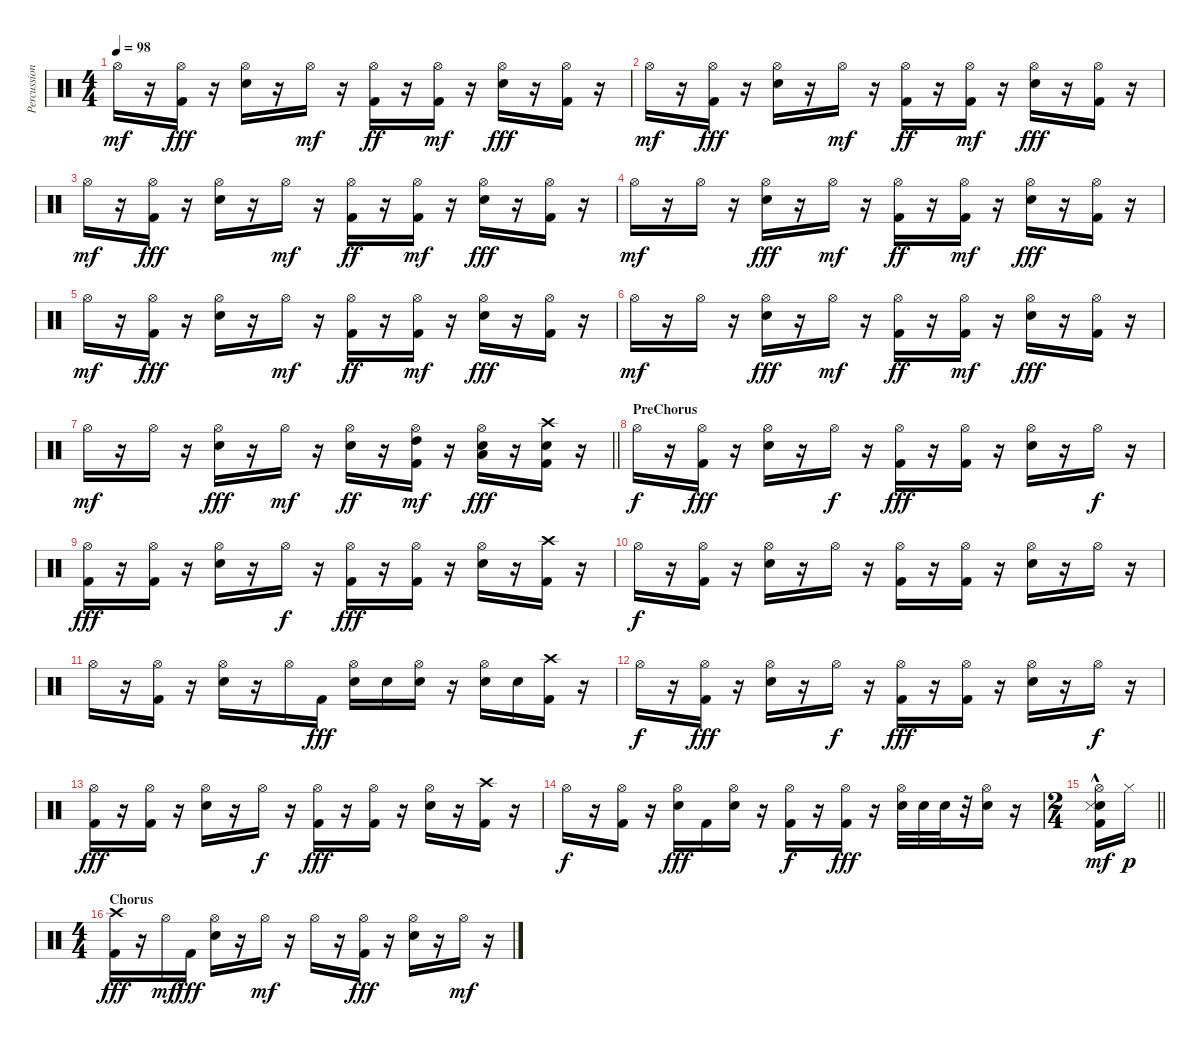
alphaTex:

\track ("Percussion" "Percussion") {instrument percussion}
\staff {score}
\articulation defaults
\ts (4 4)
\tempo 98
\clef neutral
\ks c "Hi-Hat (open)".16{dy mf}
r.16 ("Hi-Hat (open)" "Kick (hit) 2").16{dy fff} r.16 ("Hi-Hat (open)" "Electric Snare (hit)").16 r.16 "Hi-Hat (open)".16{dy mf} r.16 ("Hi-Hat (open)" "Kick (hit) 2").16{dy ff} r.16 ("Hi-Hat (open)" "Kick (hit) 2").16{dy mf} r.16 ("Hi-Hat (open)" "Electric Snare (hit)").16{dy fff} r.16 ("Hi-Hat (open)" "Kick (hit) 2").16 r.16 |
"Hi-Hat (open)".16{dy mf} r.16 ("Hi-Hat (open)" "Kick (hit) 2").16{dy fff} r.16 ("Hi-Hat (open)" "Electric Snare (hit)").16 r.16 "Hi-Hat (open)".16{dy mf} r.16 ("Hi-Hat (open)" "Kick (hit) 2").16{dy ff} r.16 ("Hi-Hat (open)" "Kick (hit) 2").16{dy mf} r.16 ("Hi-Hat (open)" "Electric Snare (hit)").16{dy fff} r.16 ("Hi-Hat (open)" "Kick (hit) 2").16 r.16 |
"Hi-Hat (open)".16{dy mf} r.16 ("Hi-Hat (open)" "Kick (hit) 2").16{dy fff} r.16 ("Hi-Hat (open)" "Electric Snare (hit)").16 r.16 "Hi-Hat (open)".16{dy mf} r.16 ("Hi-Hat (open)" "Kick (hit) 2").16{dy ff} r.16 ("Hi-Hat (open)" "Kick (hit) 2").16{dy mf} r.16 ("Hi-Hat (open)" "Electric Snare (hit)").16{dy fff} r.16 ("Hi-Hat (open)" "Kick (hit) 2").16 r.16 |
"Hi-Hat (open)".16{dy mf} r.16 "Hi-Hat (open)".16 r.16 ("Hi-Hat (open)" "Electric Snare (hit)").16{dy fff} r.16 "Hi-Hat (open)".16{dy mf} r.16 ("Hi-Hat (open)" "Kick (hit) 2").16{dy ff} r.16 ("Hi-Hat (open)" "Kick (hit) 2").16{dy mf} r.16 ("Hi-Hat (open)" "Electric Snare (hit)").16{dy fff} r.16 ("Hi-Hat (open)" "Kick (hit) 2").16 r.16 |
"Hi-Hat (open)".16{dy mf} r.16 ("Hi-Hat (open)" "Kick (hit) 2").16{dy fff} r.16 ("Hi-Hat (open)" "Electric Snare (hit)").16 r.16 "Hi-Hat (open)".16{dy mf} r.16 ("Hi-Hat (open)" "Kick (hit) 2").16{dy ff} r.16 ("Hi-Hat (open)" "Kick (hit) 2").16{dy mf} r.16 ("Hi-Hat (open)" "Electric Snare (hit)").16{dy fff} r.16 ("Hi-Hat (open)" "Kick (hit) 2").16 r.16 |
"Hi-Hat (open)".16{dy mf} r.16 "Hi-Hat (open)".16 r.16 ("Hi-Hat (open)" "Electric Snare (hit)").16{dy fff} r.16 "Hi-Hat (open)".16{dy mf} r.16 ("Hi-Hat (open)" "Kick (hit) 2").16{dy ff} r.16 ("Hi-Hat (open)" "Kick (hit) 2").16{dy mf} r.16 ("Hi-Hat (open)" "Electric Snare (hit)").16{dy fff} r.16 ("Hi-Hat (open)" "Kick (hit) 2").16 r.16 |
\barLineRight lightlight "Hi-Hat (open)".16{dy mf}
r.16 "Hi-Hat (open)".16 r.16 ("Hi-Hat (open)" "Electric Snare (hit)").16{dy fff} r.16 "Hi-Hat (open)".16{dy mf} r.16 ("Hi-Hat (open)" "Electric Snare (hit)").16{dy ff} r.16 ("Hi-Hat (open)" "Kick (hit) 2" "High Tom (hit)").16{dy mf} r.16 ("Hi-Hat (open)" "Electric Snare (hit)" "Low Tom (hit)").16{dy fff} r.16 ("Crash high (hit)" "Kick (hit) 2" "Electric Snare (hit)").16 r.16 |
\section ("" "PreChorus")
"Hi-Hat (open)".16{dy f} r.16 ("Hi-Hat (open)" "Kick (hit) 2").16{dy fff} r.16 ("Hi-Hat (open)" "Electric Snare (hit)").16 r.16 "Hi-Hat (open)".16{dy f} r.16 ("Hi-Hat (open)" "Kick (hit) 2").16{dy fff} r.16 ("Hi-Hat (open)" "Kick (hit) 2").16 r.16 ("Hi-Hat (open)" "Electric Snare (hit)").16 r.16 "Hi-Hat (open)".16{dy f} r.16 |
("Hi-Hat (open)" "Kick (hit) 2").16{dy fff} r.16 ("Hi-Hat (open)" "Kick (hit) 2").16 r.16 ("Hi-Hat (open)" "Electric Snare (hit)").16 r.16 "Hi-Hat (open)".16{dy f} r.16 ("Hi-Hat (open)" "Kick (hit) 2").16{dy fff} r.16 ("Hi-Hat (open)" "Kick (hit) 2").16 r.16 ("Hi-Hat (open)" "Electric Snare (hit)").16 r.16 ("Crash high (hit)" "Kick (hit) 2").16 r.16 |
"Hi-Hat (open)".16{dy f} r.16 ("Hi-Hat (open)" "Kick (hit) 2").16 r.16 ("Hi-Hat (open)" "Electric Snare (hit)").16 r.16 "Hi-Hat (open)".16 r.16 ("Hi-Hat (open)" "Kick (hit) 2").16 r.16 ("Hi-Hat (open)" "Kick (hit) 2").16 r.16 ("Hi-Hat (open)" "Electric Snare (hit)").16 r.16 "Hi-Hat (open)".16 r.16 |
"Hi-Hat (open)".16 r.16 ("Hi-Hat (open)" "Kick (hit) 2").16 r.16 ("Hi-Hat (open)" "Electric Snare (hit)").16 r.16 "Hi-Hat (open)".16 "Kick (hit) 2".16{dy fff} ("Hi-Hat (open)" "Electric Snare (hit)").16 "Electric Snare (hit)".16 ("Hi-Hat (open)" "Electric Snare (hit)").16 r.16 ("Hi-Hat (open)" "Electric Snare (hit)").16 "Electric Snare (hit)".16 ("Crash high (hit)" "Kick (hit) 2").16 r.16 |
"Hi-Hat (open)".16{dy f} r.16 ("Hi-Hat (open)" "Kick (hit) 2").16{dy fff} r.16 ("Hi-Hat (open)" "Electric Snare (hit)").16 r.16 "Hi-Hat (open)".16{dy f} r.16 ("Hi-Hat (open)" "Kick (hit) 2").16{dy fff} r.16 ("Hi-Hat (open)" "Kick (hit) 2").16 r.16 ("Hi-Hat (open)" "Electric Snare (hit)").16 r.16 "Hi-Hat (open)".16{dy f} r.16 |
("Hi-Hat (open)" "Kick (hit) 2").16{dy fff} r.16 ("Hi-Hat (open)" "Kick (hit) 2").16 r.16 ("Hi-Hat (open)" "Electric Snare (hit)").16 r.16 "Hi-Hat (open)".16{dy f} r.16 ("Hi-Hat (open)" "Kick (hit) 2").16{dy fff} r.16 ("Hi-Hat (open)" "Kick (hit) 2").16 r.16 ("Hi-Hat (open)" "Electric Snare (hit)").16 r.16 ("Crash high (hit)" "Kick (hit) 2").16 r.16 |
"Hi-Hat (open)".16{dy f} r.16 ("Hi-Hat (open)" "Kick (hit) 2").16 r.16 ("Hi-Hat (open)" "Electric Snare (hit)").16{dy fff} "Kick (hit) 2".16 ("Hi-Hat (open)" "Electric Snare (hit)").16 r.16 ("Hi-Hat (open)" "Kick (hit) 2").16{dy f} r.16 ("Hi-Hat (open)" "Kick (hit) 2").16{dy fff} r.16 ("Hi-Hat (open)" "Electric Snare (hit)").32 "Electric Snare (hit)".32 "Electric Snare (hit)".32 r.32 ("Hi-Hat (open)" "Electric Snare (hit)").16 r.16 |
\ts (2 4)
\barLineRight lightlight
("Hi-Hat (open)"{hac} "Kick (hit) 2"{hac} "Electric Snare (hit)"{hac} "Snare (side stick) 3"{hac}).16{dy mf} "Hi-Hat (closed)".16{dy p} |
\ts (4 4)
\section ("" "Chorus")
("Crash high (hit)" "Kick (hit) 2").16{dy fff} r.16 "Hi-Hat (open)".16{dy mf} "Kick (hit) 2".16{dy fff} ("Hi-Hat (open)" "Electric Snare (hit)").16 r.16 "Hi-Hat (open)".16{dy mf} r.16 "Hi-Hat (open)".16 r.16 ("Hi-Hat (open)" "Kick (hit) 2").16{dy fff} r.16 ("Hi-Hat (open)" "Electric Snare (hit)").16 r.16 "Hi-Hat (open)".16{dy mf} r.16
